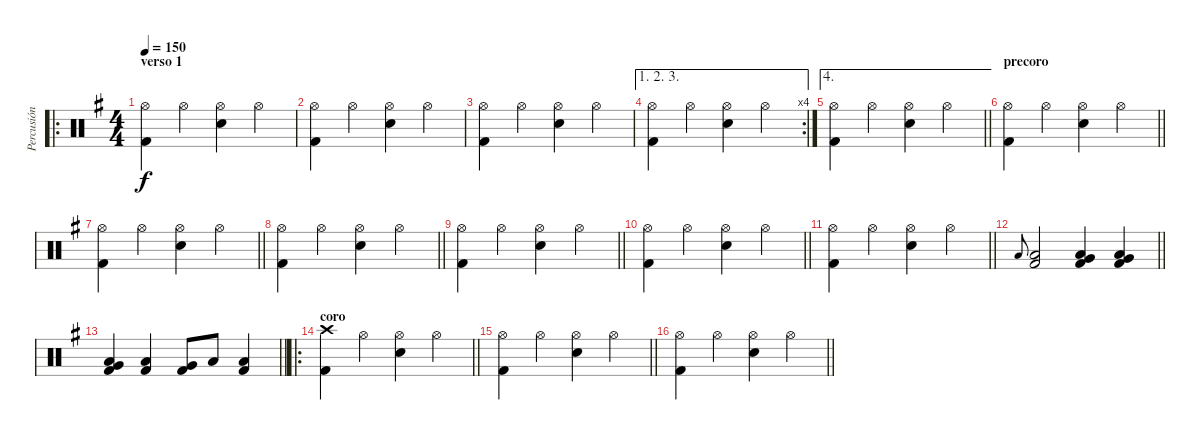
\track ("Percusión" "Percusión") {instrument percussion}
\staff {score}
\articulation defaults
\ro
\ts (4 4)
\section ("" "verso 1")
\tempo 150
\clef neutral
\ks eminor
("Hi-Hat (open)" "Kick (hit) 2").4{dy f} "Hi-Hat (open)".4 ("Hi-Hat (open)" "Electric Snare (hit)").4 "Hi-Hat (open)".4 |
("Hi-Hat (open)" "Kick (hit) 2").4 "Hi-Hat (open)".4 ("Hi-Hat (open)" "Electric Snare (hit)").4 "Hi-Hat (open)".4 |
("Hi-Hat (open)" "Kick (hit) 2").4 "Hi-Hat (open)".4 ("Hi-Hat (open)" "Electric Snare (hit)").4 "Hi-Hat (open)".4 |
\ae (1 2 3)
\rc 4
("Hi-Hat (open)" "Kick (hit) 2").4 "Hi-Hat (open)".4 ("Hi-Hat (open)" "Electric Snare (hit)").4 "Hi-Hat (open)".4 |
\ae 4
\barLineRight lightlight
("Hi-Hat (open)" "Kick (hit) 2").4 "Hi-Hat (open)".4 ("Hi-Hat (open)" "Electric Snare (hit)").4 "Hi-Hat (open)".4 |
\section ("" "precoro")
\barLineRight lightlight
("Hi-Hat (open)" "Kick (hit) 2").4 "Hi-Hat (open)".4 ("Hi-Hat (open)" "Electric Snare (hit)").4 "Hi-Hat (open)".4 |
\barLineRight lightlight
("Hi-Hat (open)" "Kick (hit) 2").4 "Hi-Hat (open)".4 ("Hi-Hat (open)" "Electric Snare (hit)").4 "Hi-Hat (open)".4 |
\barLineRight lightlight
("Hi-Hat (open)" "Kick (hit) 2").4 "Hi-Hat (open)".4 ("Hi-Hat (open)" "Electric Snare (hit)").4 "Hi-Hat (open)".4 |
\barLineRight lightlight
("Hi-Hat (open)" "Kick (hit) 2").4 "Hi-Hat (open)".4 ("Hi-Hat (open)" "Electric Snare (hit)").4 "Hi-Hat (open)".4 |
\barLineRight lightlight
("Hi-Hat (open)" "Kick (hit) 2").4 "Hi-Hat (open)".4 ("Hi-Hat (open)" "Electric Snare (hit)").4 "Hi-Hat (open)".4 |
\barLineRight lightlight
("Hi-Hat (open)" "Kick (hit) 2").4 "Hi-Hat (open)".4 ("Hi-Hat (open)" "Electric Snare (hit)").4 "Hi-Hat (open)".4 |
\barLineRight lightlight "Low Floor Tom (hit)".8{gr onbeat}
("Low Floor Tom (hit)" "Kick (hit) 2").2 ("Very Low Tom (hit)" "Low Floor Tom (hit)" "Kick (hit) 2").4 ("Very Low Tom (hit)" "Low Floor Tom (hit)" "Kick (hit) 2").4 |
\barLineRight lightlight
("Very Low Tom (hit)" "Low Floor Tom (hit)" "Kick (hit) 2").4 ("Low Tom (hit)" "Kick (hit) 2").4 ("Very Low Tom (hit)" "Kick (hit) 2").8 "Low Floor Tom (hit)".8 ("Low Floor Tom (hit)" "Kick (hit) 2").4 |
\ro
\section ("" "coro")
\barLineRight lightlight
("Crash high (hit)" "Kick (hit) 2").4 "Hi-Hat (open)".4 ("Hi-Hat (open)" "Electric Snare (hit)").4 "Hi-Hat (open)".4 |
\barLineRight lightlight
("Hi-Hat (open)" "Kick (hit) 2").4 "Hi-Hat (open)".4 ("Hi-Hat (open)" "Electric Snare (hit)").4 "Hi-Hat (open)".4 |
\barLineRight lightlight
("Hi-Hat (open)" "Kick (hit) 2").4 "Hi-Hat (open)".4 ("Hi-Hat (open)" "Electric Snare (hit)").4 "Hi-Hat (open)".4
